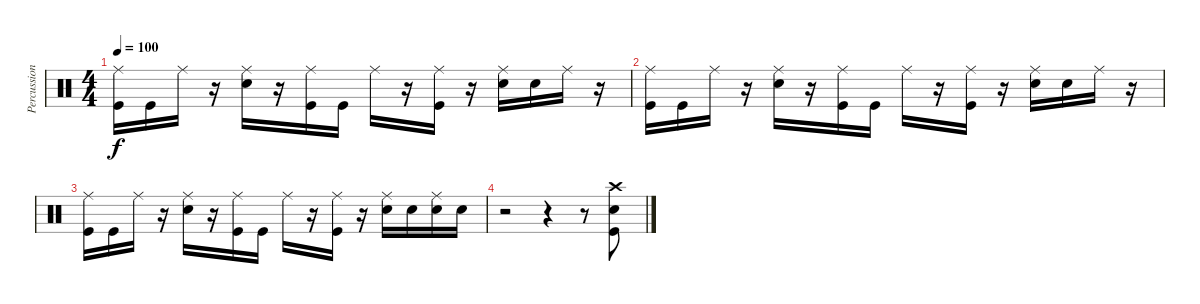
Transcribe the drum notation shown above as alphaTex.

\track ("Percussions" "Percussion") {instrument percussion}
\staff {score}
\articulation defaults
\ts (4 4)
\tempo 100
\clef neutral
\ks c
("Ride (middle)" "Kick (hit)").16{dy f} "Kick (hit)".16 "Ride (middle)".16 r.16 ("Ride (middle)" "Electric Snare (hit)").16 r.16 ("Ride (middle)" "Kick (hit)").16 "Kick (hit)".16 "Ride (middle)".16 r.16 ("Ride (middle)" "Kick (hit)").16 r.16 ("Ride (middle)" "Electric Snare (hit)").16 "Electric Snare (hit)".16 "Ride (middle)".16 r.16 |
("Ride (middle)" "Kick (hit)").16 "Kick (hit)".16 "Ride (middle)".16 r.16 ("Ride (middle)" "Electric Snare (hit)").16 r.16 ("Ride (middle)" "Kick (hit)").16 "Kick (hit)".16 "Ride (middle)".16 r.16 ("Ride (middle)" "Kick (hit)").16 r.16 ("Ride (middle)" "Electric Snare (hit)").16 "Electric Snare (hit)".16 "Ride (middle)".16 r.16 |
("Ride (middle)" "Kick (hit)").16 "Kick (hit)".16 "Ride (middle)".16 r.16 ("Ride (middle)" "Electric Snare (hit)").16 r.16 ("Ride (middle)" "Kick (hit)").16 "Kick (hit)".16 "Ride (middle)".16 r.16 ("Ride (middle)" "Kick (hit)").16 r.16 ("Ride (middle)" "Electric Snare (hit)").16 "Electric Snare (hit)".16 ("Ride (middle)" "Electric Snare (hit)").16 "Electric Snare (hit)".16 |
r.2 r.4 r.8 ("Crash high (hit)" "Electric Snare (hit)" "Kick (hit)").8
